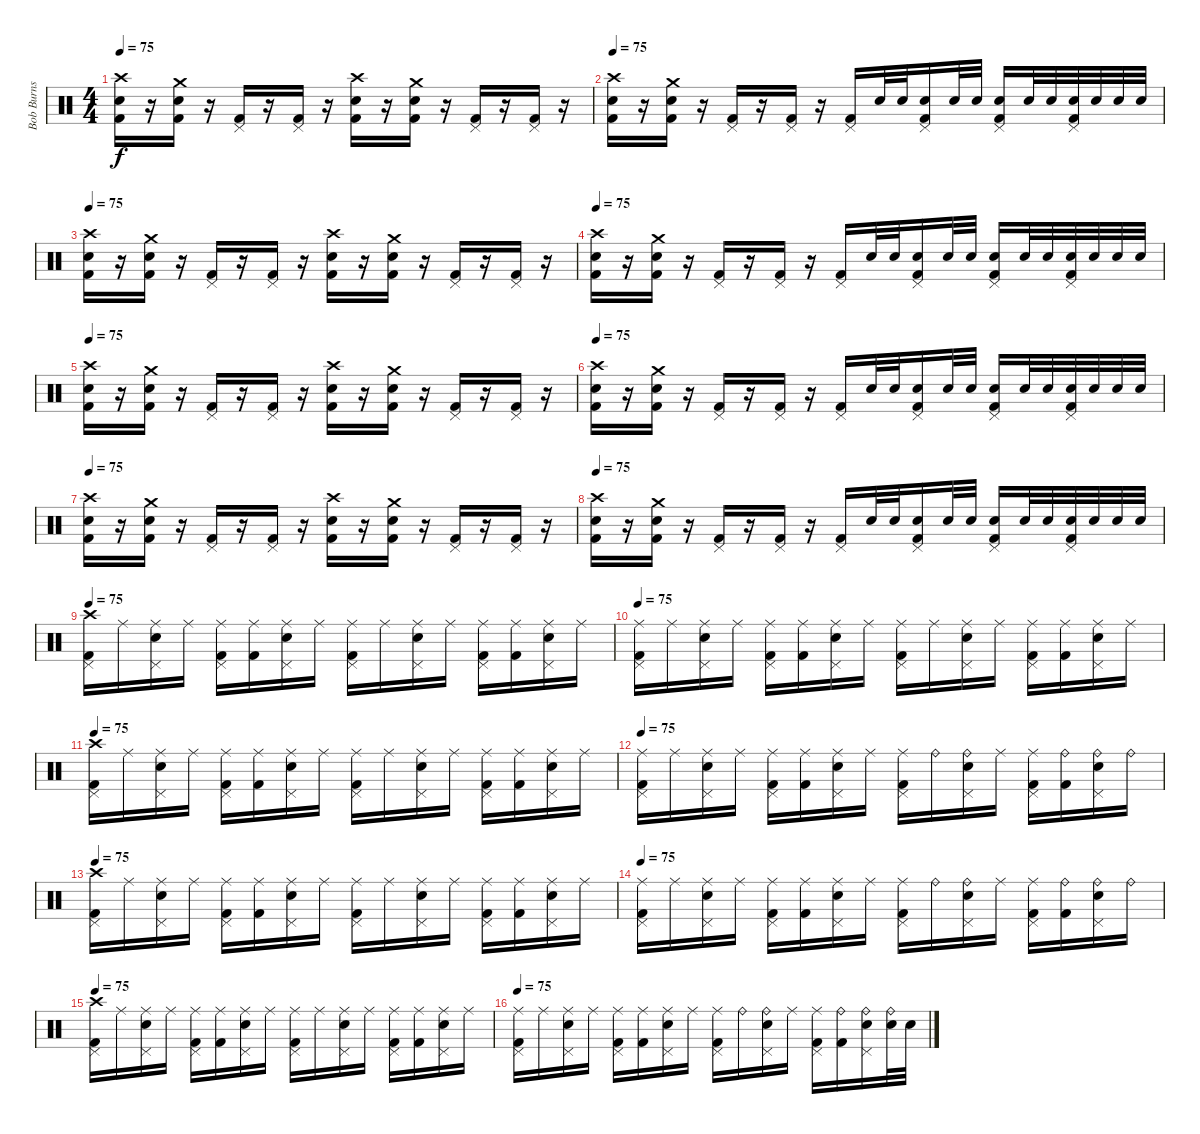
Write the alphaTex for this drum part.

\track ("Bob Burns (drums and percussion)" "Bob Burns ") {instrument percussion}
\staff {score}
\articulation defaults
\ts (4 4)
\tempo 75
\clef neutral
\ks c
("Crash high (hit)" "Electric Snare (hit)" "Kick (hit) 2").16{dy f} r.16 ("Crash medium (hit)" "Electric Snare (hit)" "Kick (hit) 2").16 r.16 ("Pedal Hi-Hat (hit)" "Kick (hit) 2").16 r.16 ("Pedal Hi-Hat (hit)" "Kick (hit) 2").16 r.16 ("Crash high (hit)" "Electric Snare (hit)" "Kick (hit) 2").16 r.16 ("Crash medium (hit)" "Electric Snare (hit)" "Kick (hit) 2").16 r.16 ("Pedal Hi-Hat (hit)" "Kick (hit) 2").16 r.16 ("Pedal Hi-Hat (hit)" "Kick (hit) 2").16 r.16 |
\tempo 75
("Crash high (hit)" "Electric Snare (hit)" "Kick (hit) 2").16 r.16 ("Crash medium (hit)" "Electric Snare (hit)" "Kick (hit) 2").16 r.16 ("Pedal Hi-Hat (hit)" "Kick (hit) 2").16 r.16 ("Pedal Hi-Hat (hit)" "Kick (hit) 2").16 r.16 ("Pedal Hi-Hat (hit)" "Kick (hit) 2").16 "Electric Snare (hit)".32 "Electric Snare (hit)".32 ("Pedal Hi-Hat (hit)" "Electric Snare (hit)" "Kick (hit) 2").16 "Electric Snare (hit)".32 "Electric Snare (hit)".32 ("Pedal Hi-Hat (hit)" "Electric Snare (hit)" "Kick (hit) 2").16 "Electric Snare (hit)".32 "Electric Snare (hit)".32 ("Pedal Hi-Hat (hit)" "Electric Snare (hit)" "Kick (hit) 2").32 "Electric Snare (hit)".32 "Electric Snare (hit)".32 "Electric Snare (hit)".32 |
\tempo 75
("Crash high (hit)" "Electric Snare (hit)" "Kick (hit) 2").16 r.16 ("Crash medium (hit)" "Electric Snare (hit)" "Kick (hit) 2").16 r.16 ("Pedal Hi-Hat (hit)" "Kick (hit) 2").16 r.16 ("Pedal Hi-Hat (hit)" "Kick (hit) 2").16 r.16 ("Crash high (hit)" "Electric Snare (hit)" "Kick (hit) 2").16 r.16 ("Crash medium (hit)" "Electric Snare (hit)" "Kick (hit) 2").16 r.16 ("Pedal Hi-Hat (hit)" "Kick (hit) 2").16 r.16 ("Pedal Hi-Hat (hit)" "Kick (hit) 2").16 r.16 |
\tempo 75
("Crash high (hit)" "Electric Snare (hit)" "Kick (hit) 2").16 r.16 ("Crash medium (hit)" "Electric Snare (hit)" "Kick (hit) 2").16 r.16 ("Pedal Hi-Hat (hit)" "Kick (hit) 2").16 r.16 ("Pedal Hi-Hat (hit)" "Kick (hit) 2").16 r.16 ("Pedal Hi-Hat (hit)" "Kick (hit) 2").16 "Electric Snare (hit)".32 "Electric Snare (hit)".32 ("Pedal Hi-Hat (hit)" "Electric Snare (hit)" "Kick (hit) 2").16 "Electric Snare (hit)".32 "Electric Snare (hit)".32 ("Pedal Hi-Hat (hit)" "Electric Snare (hit)" "Kick (hit) 2").16 "Electric Snare (hit)".32 "Electric Snare (hit)".32 ("Pedal Hi-Hat (hit)" "Electric Snare (hit)" "Kick (hit) 2").32 "Electric Snare (hit)".32 "Electric Snare (hit)".32 "Electric Snare (hit)".32 |
\tempo 75
("Crash high (hit)" "Electric Snare (hit)" "Kick (hit) 2").16 r.16 ("Crash medium (hit)" "Electric Snare (hit)" "Kick (hit) 2").16 r.16 ("Pedal Hi-Hat (hit)" "Kick (hit) 2").16 r.16 ("Pedal Hi-Hat (hit)" "Kick (hit) 2").16 r.16 ("Crash high (hit)" "Electric Snare (hit)" "Kick (hit) 2").16 r.16 ("Crash medium (hit)" "Electric Snare (hit)" "Kick (hit) 2").16 r.16 ("Pedal Hi-Hat (hit)" "Kick (hit) 2").16 r.16 ("Pedal Hi-Hat (hit)" "Kick (hit) 2").16 r.16 |
\tempo 75
("Crash high (hit)" "Electric Snare (hit)" "Kick (hit) 2").16 r.16 ("Crash medium (hit)" "Electric Snare (hit)" "Kick (hit) 2").16 r.16 ("Pedal Hi-Hat (hit)" "Kick (hit) 2").16 r.16 ("Pedal Hi-Hat (hit)" "Kick (hit) 2").16 r.16 ("Pedal Hi-Hat (hit)" "Kick (hit) 2").16 "Electric Snare (hit)".32 "Electric Snare (hit)".32 ("Pedal Hi-Hat (hit)" "Electric Snare (hit)" "Kick (hit) 2").16 "Electric Snare (hit)".32 "Electric Snare (hit)".32 ("Pedal Hi-Hat (hit)" "Electric Snare (hit)" "Kick (hit) 2").16 "Electric Snare (hit)".32 "Electric Snare (hit)".32 ("Pedal Hi-Hat (hit)" "Electric Snare (hit)" "Kick (hit) 2").32 "Electric Snare (hit)".32 "Electric Snare (hit)".32 "Electric Snare (hit)".32 |
\tempo 75
("Crash high (hit)" "Electric Snare (hit)" "Kick (hit) 2").16 r.16 ("Crash medium (hit)" "Electric Snare (hit)" "Kick (hit) 2").16 r.16 ("Pedal Hi-Hat (hit)" "Kick (hit) 2").16 r.16 ("Pedal Hi-Hat (hit)" "Kick (hit) 2").16 r.16 ("Crash high (hit)" "Electric Snare (hit)" "Kick (hit) 2").16 r.16 ("Crash medium (hit)" "Electric Snare (hit)" "Kick (hit) 2").16 r.16 ("Pedal Hi-Hat (hit)" "Kick (hit) 2").16 r.16 ("Pedal Hi-Hat (hit)" "Kick (hit) 2").16 r.16 |
\tempo 75
("Crash high (hit)" "Electric Snare (hit)" "Kick (hit) 2").16 r.16 ("Crash medium (hit)" "Electric Snare (hit)" "Kick (hit) 2").16 r.16 ("Pedal Hi-Hat (hit)" "Kick (hit) 2").16 r.16 ("Pedal Hi-Hat (hit)" "Kick (hit) 2").16 r.16 ("Pedal Hi-Hat (hit)" "Kick (hit) 2").16 "Electric Snare (hit)".32 "Electric Snare (hit)".32 ("Pedal Hi-Hat (hit)" "Electric Snare (hit)" "Kick (hit) 2").16 "Electric Snare (hit)".32 "Electric Snare (hit)".32 ("Pedal Hi-Hat (hit)" "Electric Snare (hit)" "Kick (hit) 2").16 "Electric Snare (hit)".32 "Electric Snare (hit)".32 ("Pedal Hi-Hat (hit)" "Electric Snare (hit)" "Kick (hit) 2").32 "Electric Snare (hit)".32 "Electric Snare (hit)".32 "Electric Snare (hit)".32 |
\tempo 75
("Crash high (hit)" "Pedal Hi-Hat (hit)" "Kick (hit) 2").16 "Ride (middle)".16 ("Ride (middle)" "Pedal Hi-Hat (hit)" "Electric Snare (hit)").16 "Ride (middle)".16 ("Ride (middle)" "Pedal Hi-Hat (hit)" "Kick (hit) 2").16 ("Ride (middle)" "Kick (hit) 2").16 ("Ride (middle)" "Pedal Hi-Hat (hit)" "Electric Snare (hit)").16 "Ride (middle)".16 ("Ride (middle)" "Pedal Hi-Hat (hit)" "Kick (hit) 2").16 "Ride (middle)".16 ("Ride (middle)" "Pedal Hi-Hat (hit)" "Electric Snare (hit)").16 "Ride (middle)".16 ("Ride (middle)" "Pedal Hi-Hat (hit)" "Kick (hit) 2").16 ("Ride (middle)" "Kick (hit) 2").16 ("Ride (middle)" "Pedal Hi-Hat (hit)" "Electric Snare (hit)").16 "Ride (middle)".16 |
\tempo 75
("Ride (middle)" "Pedal Hi-Hat (hit)" "Kick (hit) 2").16 "Ride (middle)".16 ("Ride (middle)" "Pedal Hi-Hat (hit)" "Electric Snare (hit)").16 "Ride (middle)".16 ("Ride (middle)" "Pedal Hi-Hat (hit)" "Kick (hit) 2").16 ("Ride (middle)" "Kick (hit) 2").16 ("Ride (middle)" "Pedal Hi-Hat (hit)" "Electric Snare (hit)").16 "Ride (middle)".16 ("Ride (middle)" "Pedal Hi-Hat (hit)" "Kick (hit) 2").16 "Ride (middle)".16 ("Ride (middle)" "Pedal Hi-Hat (hit)" "Electric Snare (hit)").16 "Ride (middle)".16 ("Ride (middle)" "Pedal Hi-Hat (hit)" "Kick (hit) 2").16 ("Ride (middle)" "Kick (hit) 2").16 ("Ride (middle)" "Pedal Hi-Hat (hit)" "Electric Snare (hit)").16 "Ride (middle)".16 |
\tempo 75
("Crash high (hit)" "Pedal Hi-Hat (hit)" "Kick (hit) 2").16 "Ride (middle)".16 ("Ride (middle)" "Pedal Hi-Hat (hit)" "Electric Snare (hit)").16 "Ride (middle)".16 ("Ride (middle)" "Pedal Hi-Hat (hit)" "Kick (hit) 2").16 ("Ride (middle)" "Kick (hit) 2").16 ("Ride (middle)" "Pedal Hi-Hat (hit)" "Electric Snare (hit)").16 "Ride (middle)".16 ("Ride (middle)" "Pedal Hi-Hat (hit)" "Kick (hit) 2").16 "Ride (middle)".16 ("Ride (middle)" "Pedal Hi-Hat (hit)" "Electric Snare (hit)").16 "Ride (middle)".16 ("Ride (middle)" "Pedal Hi-Hat (hit)" "Kick (hit) 2").16 ("Ride (middle)" "Kick (hit) 2").16 ("Ride (middle)" "Pedal Hi-Hat (hit)" "Electric Snare (hit)").16 "Ride (middle)".16 |
\tempo 75
("Ride (middle)" "Pedal Hi-Hat (hit)" "Kick (hit) 2").16 "Ride (middle)".16 ("Ride (middle)" "Pedal Hi-Hat (hit)" "Electric Snare (hit)").16 "Ride (middle)".16 ("Ride (middle)" "Pedal Hi-Hat (hit)" "Kick (hit) 2").16 ("Ride (middle)" "Kick (hit) 2").16 ("Ride (middle)" "Pedal Hi-Hat (hit)" "Electric Snare (hit)").16 "Ride (middle)".16 ("Ride (middle)" "Pedal Hi-Hat (hit)" "Kick (hit) 2").16 "Ride (bell)".16 ("Ride (bell)" "Pedal Hi-Hat (hit)" "Electric Snare (hit)").16 "Ride (middle)".16 ("Ride (middle)" "Pedal Hi-Hat (hit)" "Kick (hit) 2").16 ("Ride (bell)" "Kick (hit) 2").16 ("Ride (bell)" "Pedal Hi-Hat (hit)" "Electric Snare (hit)").16 "Ride (bell)".16 |
\tempo 75
("Crash high (hit)" "Pedal Hi-Hat (hit)" "Kick (hit) 2").16 "Ride (middle)".16 ("Ride (middle)" "Pedal Hi-Hat (hit)" "Electric Snare (hit)").16 "Ride (middle)".16 ("Ride (middle)" "Pedal Hi-Hat (hit)" "Kick (hit) 2").16 ("Ride (middle)" "Kick (hit) 2").16 ("Ride (middle)" "Pedal Hi-Hat (hit)" "Electric Snare (hit)").16 "Ride (middle)".16 ("Ride (middle)" "Pedal Hi-Hat (hit)" "Kick (hit) 2").16 "Ride (middle)".16 ("Ride (middle)" "Pedal Hi-Hat (hit)" "Electric Snare (hit)").16 "Ride (middle)".16 ("Ride (middle)" "Pedal Hi-Hat (hit)" "Kick (hit) 2").16 ("Ride (middle)" "Kick (hit) 2").16 ("Ride (middle)" "Pedal Hi-Hat (hit)" "Electric Snare (hit)").16 "Ride (middle)".16 |
\tempo 75
("Ride (middle)" "Pedal Hi-Hat (hit)" "Kick (hit) 2").16 "Ride (middle)".16 ("Ride (middle)" "Pedal Hi-Hat (hit)" "Electric Snare (hit)").16 "Ride (middle)".16 ("Ride (middle)" "Pedal Hi-Hat (hit)" "Kick (hit) 2").16 ("Ride (middle)" "Kick (hit) 2").16 ("Ride (middle)" "Pedal Hi-Hat (hit)" "Electric Snare (hit)").16 "Ride (middle)".16 ("Ride (middle)" "Pedal Hi-Hat (hit)" "Kick (hit) 2").16 "Ride (bell)".16 ("Ride (bell)" "Pedal Hi-Hat (hit)" "Electric Snare (hit)").16 "Ride (middle)".16 ("Ride (middle)" "Pedal Hi-Hat (hit)" "Kick (hit) 2").16 ("Ride (bell)" "Kick (hit) 2").16 ("Ride (bell)" "Pedal Hi-Hat (hit)" "Electric Snare (hit)").16 "Ride (bell)".16 |
\tempo 75
("Crash high (hit)" "Pedal Hi-Hat (hit)" "Kick (hit) 2").16 "Ride (middle)".16 ("Ride (middle)" "Pedal Hi-Hat (hit)" "Electric Snare (hit)").16 "Ride (middle)".16 ("Ride (middle)" "Pedal Hi-Hat (hit)" "Kick (hit) 2").16 ("Ride (middle)" "Kick (hit) 2").16 ("Ride (middle)" "Pedal Hi-Hat (hit)" "Electric Snare (hit)").16 "Ride (middle)".16 ("Ride (middle)" "Pedal Hi-Hat (hit)" "Kick (hit) 2").16 "Ride (middle)".16 ("Ride (middle)" "Pedal Hi-Hat (hit)" "Electric Snare (hit)").16 "Ride (middle)".16 ("Ride (middle)" "Pedal Hi-Hat (hit)" "Kick (hit) 2").16 ("Ride (middle)" "Kick (hit) 2").16 ("Ride (middle)" "Pedal Hi-Hat (hit)" "Electric Snare (hit)").16 "Ride (middle)".16 |
\tempo 75
("Ride (middle)" "Pedal Hi-Hat (hit)" "Kick (hit) 2").16 "Ride (middle)".16 ("Ride (middle)" "Pedal Hi-Hat (hit)" "Electric Snare (hit)").16 "Ride (middle)".16 ("Ride (middle)" "Pedal Hi-Hat (hit)" "Kick (hit) 2").16 ("Ride (middle)" "Kick (hit) 2").16 ("Ride (middle)" "Pedal Hi-Hat (hit)" "Electric Snare (hit)").16 "Ride (middle)".16 ("Ride (middle)" "Pedal Hi-Hat (hit)" "Kick (hit) 2").16 "Ride (bell)".16 ("Ride (bell)" "Pedal Hi-Hat (hit)" "Electric Snare (hit)").16 "Ride (middle)".16 ("Ride (middle)" "Pedal Hi-Hat (hit)" "Kick (hit) 2").16 ("Ride (bell)" "Kick (hit) 2").16 ("Ride (bell)" "Pedal Hi-Hat (hit)" "Electric Snare (hit)").16 ("Ride (bell)" "Electric Snare (hit)").32 "Electric Snare (hit)".32
